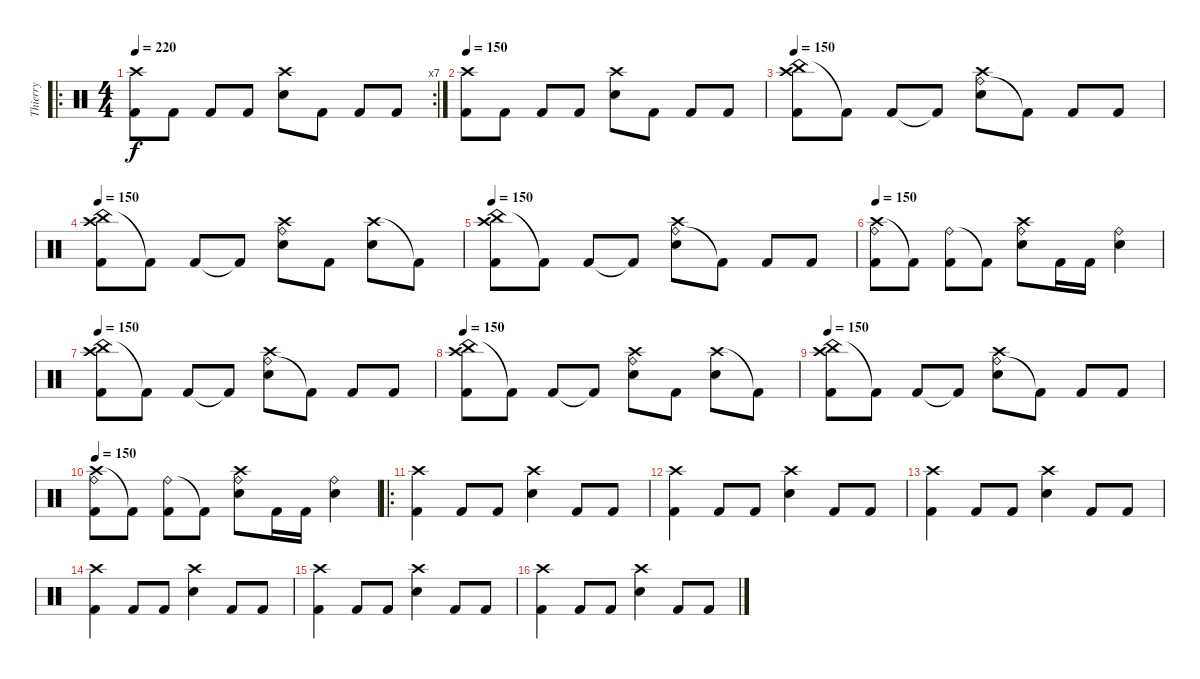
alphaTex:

\track ("Thierry" "Thierry") {instrument percussion}
\staff {score}
\articulation defaults
\ro
\rc 7
\ts (4 4)
\tempo 220
\clef neutral
\ks c
("Crash high (hit)" "Kick (hit) 2").8{dy f} "Kick (hit) 2".8 "Kick (hit) 2".8 "Kick (hit) 2".8 ("Crash high (hit)" "Electric Snare (hit)").8 "Kick (hit) 2".8 "Kick (hit) 2".8 "Kick (hit) 2".8 |
\tempo 150
("Crash high (hit)" "Kick (hit) 2").8 "Kick (hit) 2".8 "Kick (hit) 2".8 "Kick (hit) 2".8 ("Crash high (hit)" "Electric Snare (hit)").8 "Kick (hit) 2".8 "Kick (hit) 2".8 "Kick (hit) 2".8 |
\tempo 150
("China (hit)" "Crash high (hit)" "Kick (hit) 2").8 "Kick (hit) 2"{t}.8 "Kick (hit) 2".8 "Kick (hit) 2"{t}.8 ("Ride (bell)" "Crash high (hit)" "Electric Snare (hit)").8 "Kick (hit) 2"{t}.8 "Kick (hit) 2".8 "Kick (hit) 2".8 |
\tempo 150
("China (hit)" "Crash high (hit)" "Kick (hit) 2").8 "Kick (hit) 2"{t}.8 "Kick (hit) 2".8 "Kick (hit) 2"{t}.8 ("Ride (bell)" "Crash high (hit)" "Electric Snare (hit)").8 "Kick (hit) 2".8 ("Crash high (hit)" "Electric Snare (hit)").8 "Kick (hit) 2"{t}.8 |
\tempo 150
("China (hit)" "Crash high (hit)" "Kick (hit) 2").8 "Kick (hit) 2"{t}.8 "Kick (hit) 2".8 "Kick (hit) 2"{t}.8 ("Ride (bell)" "Crash high (hit)" "Electric Snare (hit)").8 "Kick (hit) 2"{t}.8 "Kick (hit) 2".8 "Kick (hit) 2".8 |
\tempo 150
("Crash high (hit)" "Ride (bell)" "Kick (hit) 2").8 "Kick (hit) 2"{t}.8 ("Ride (bell)" "Kick (hit) 2").8 "Kick (hit) 2"{t}.8 ("Crash high (hit)" "Ride (bell)" "Electric Snare (hit)").8 "Kick (hit) 2".16 "Kick (hit) 2".16 ("Ride (bell)" "Electric Snare (hit)").4 |
\tempo 150
("China (hit)" "Crash high (hit)" "Kick (hit) 2").8 "Kick (hit) 2"{t}.8 "Kick (hit) 2".8 "Kick (hit) 2"{t}.8 ("Ride (bell)" "Crash high (hit)" "Electric Snare (hit)").8 "Kick (hit) 2"{t}.8 "Kick (hit) 2".8 "Kick (hit) 2".8 |
\tempo 150
("China (hit)" "Crash high (hit)" "Kick (hit) 2").8 "Kick (hit) 2"{t}.8 "Kick (hit) 2".8 "Kick (hit) 2"{t}.8 ("Ride (bell)" "Crash high (hit)" "Electric Snare (hit)").8 "Kick (hit) 2".8 ("Crash high (hit)" "Electric Snare (hit)").8 "Kick (hit) 2"{t}.8 |
\tempo 150
("China (hit)" "Crash high (hit)" "Kick (hit) 2").8 "Kick (hit) 2"{t}.8 "Kick (hit) 2".8 "Kick (hit) 2"{t}.8 ("Ride (bell)" "Crash high (hit)" "Electric Snare (hit)").8 "Kick (hit) 2"{t}.8 "Kick (hit) 2".8 "Kick (hit) 2".8 |
\tempo 150
("Crash high (hit)" "Ride (bell)" "Kick (hit) 2").8 "Kick (hit) 2"{t}.8 ("Ride (bell)" "Kick (hit) 2").8 "Kick (hit) 2"{t}.8 ("Crash high (hit)" "Ride (bell)" "Electric Snare (hit)").8 "Kick (hit) 2".16 "Kick (hit) 2".16 ("Ride (bell)" "Electric Snare (hit)").4 |
\ro
("Crash high (hit)" "Kick (hit) 2").4 "Kick (hit) 2".8 "Kick (hit) 2".8 ("Crash high (hit)" "Electric Snare (hit)").4 "Kick (hit) 2".8 "Kick (hit) 2".8 |
("Crash high (hit)" "Kick (hit) 2").4 "Kick (hit) 2".8 "Kick (hit) 2".8 ("Crash high (hit)" "Electric Snare (hit)").4 "Kick (hit) 2".8 "Kick (hit) 2".8 |
("Crash high (hit)" "Kick (hit) 2").4 "Kick (hit) 2".8 "Kick (hit) 2".8 ("Crash high (hit)" "Electric Snare (hit)").4 "Kick (hit) 2".8 "Kick (hit) 2".8 |
("Crash high (hit)" "Kick (hit) 2").4 "Kick (hit) 2".8 "Kick (hit) 2".8 ("Crash high (hit)" "Electric Snare (hit)").4 "Kick (hit) 2".8 "Kick (hit) 2".8 |
("Crash high (hit)" "Kick (hit) 2").4 "Kick (hit) 2".8 "Kick (hit) 2".8 ("Crash high (hit)" "Electric Snare (hit)").4 "Kick (hit) 2".8 "Kick (hit) 2".8 |
("Crash high (hit)" "Kick (hit) 2").4 "Kick (hit) 2".8 "Kick (hit) 2".8 ("Crash high (hit)" "Electric Snare (hit)").4 "Kick (hit) 2".8 "Kick (hit) 2".8
